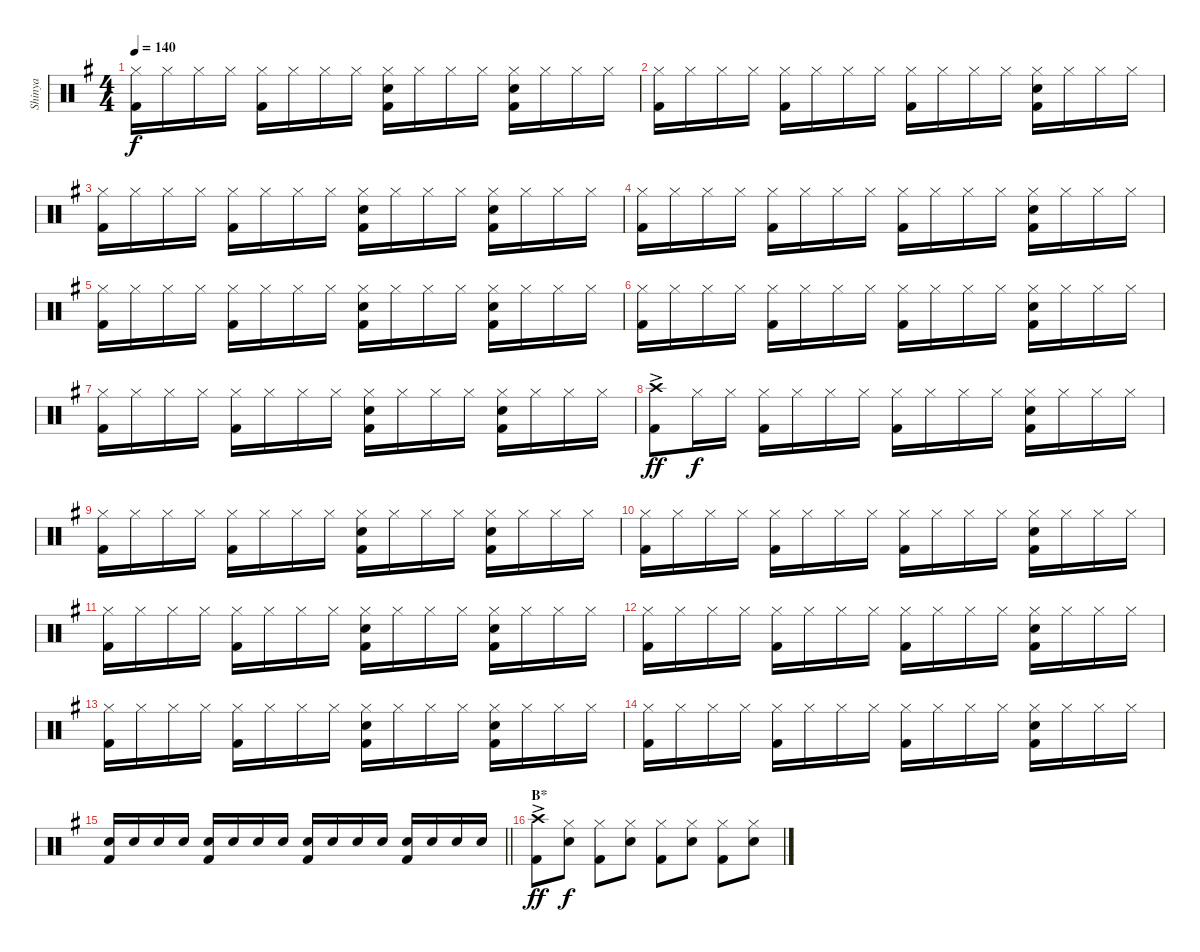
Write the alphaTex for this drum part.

\track ("Shinya" "Shinya") {instrument percussion}
\staff {score}
\articulation defaults
\ts (4 4)
\tempo 140
\clef neutral
\ks g
("Hi-Hat (closed)" "Kick (hit) 2").16{dy f} "Hi-Hat (closed)".16 "Hi-Hat (closed)".16 "Hi-Hat (closed)".16 ("Hi-Hat (closed)" "Kick (hit) 2").16 "Hi-Hat (closed)".16 "Hi-Hat (closed)".16 "Hi-Hat (closed)".16 ("Hi-Hat (closed)" "Snare (hit) 2" "Kick (hit) 2").16 "Hi-Hat (closed)".16 "Hi-Hat (closed)".16 "Hi-Hat (closed)".16 ("Hi-Hat (closed)" "Snare (hit) 2" "Kick (hit) 2").16 "Hi-Hat (closed)".16 "Hi-Hat (closed)".16 "Hi-Hat (closed)".16 |
("Hi-Hat (closed)" "Kick (hit) 2").16 "Hi-Hat (closed)".16 "Hi-Hat (closed)".16 "Hi-Hat (closed)".16 ("Hi-Hat (closed)" "Kick (hit) 2").16 "Hi-Hat (closed)".16 "Hi-Hat (closed)".16 "Hi-Hat (closed)".16 ("Hi-Hat (closed)" "Kick (hit) 2").16 "Hi-Hat (closed)".16 "Hi-Hat (closed)".16 "Hi-Hat (closed)".16 ("Hi-Hat (closed)" "Snare (hit) 2" "Kick (hit) 2").16 "Hi-Hat (closed)".16 "Hi-Hat (closed)".16 "Hi-Hat (closed)".16 |
("Hi-Hat (closed)" "Kick (hit) 2").16 "Hi-Hat (closed)".16 "Hi-Hat (closed)".16 "Hi-Hat (closed)".16 ("Hi-Hat (closed)" "Kick (hit) 2").16 "Hi-Hat (closed)".16 "Hi-Hat (closed)".16 "Hi-Hat (closed)".16 ("Hi-Hat (closed)" "Snare (hit) 2" "Kick (hit) 2").16 "Hi-Hat (closed)".16 "Hi-Hat (closed)".16 "Hi-Hat (closed)".16 ("Hi-Hat (closed)" "Snare (hit) 2" "Kick (hit) 2").16 "Hi-Hat (closed)".16 "Hi-Hat (closed)".16 "Hi-Hat (closed)".16 |
("Hi-Hat (closed)" "Kick (hit) 2").16 "Hi-Hat (closed)".16 "Hi-Hat (closed)".16 "Hi-Hat (closed)".16 ("Hi-Hat (closed)" "Kick (hit) 2").16 "Hi-Hat (closed)".16 "Hi-Hat (closed)".16 "Hi-Hat (closed)".16 ("Hi-Hat (closed)" "Kick (hit) 2").16 "Hi-Hat (closed)".16 "Hi-Hat (closed)".16 "Hi-Hat (closed)".16 ("Hi-Hat (closed)" "Snare (hit) 2" "Kick (hit) 2").16 "Hi-Hat (closed)".16 "Hi-Hat (closed)".16 "Hi-Hat (closed)".16 |
("Hi-Hat (closed)" "Kick (hit) 2").16 "Hi-Hat (closed)".16 "Hi-Hat (closed)".16 "Hi-Hat (closed)".16 ("Hi-Hat (closed)" "Kick (hit) 2").16 "Hi-Hat (closed)".16 "Hi-Hat (closed)".16 "Hi-Hat (closed)".16 ("Hi-Hat (closed)" "Snare (hit) 2" "Kick (hit) 2").16 "Hi-Hat (closed)".16 "Hi-Hat (closed)".16 "Hi-Hat (closed)".16 ("Hi-Hat (closed)" "Snare (hit) 2" "Kick (hit) 2").16 "Hi-Hat (closed)".16 "Hi-Hat (closed)".16 "Hi-Hat (closed)".16 |
("Hi-Hat (closed)" "Kick (hit) 2").16 "Hi-Hat (closed)".16 "Hi-Hat (closed)".16 "Hi-Hat (closed)".16 ("Hi-Hat (closed)" "Kick (hit) 2").16 "Hi-Hat (closed)".16 "Hi-Hat (closed)".16 "Hi-Hat (closed)".16 ("Hi-Hat (closed)" "Kick (hit) 2").16 "Hi-Hat (closed)".16 "Hi-Hat (closed)".16 "Hi-Hat (closed)".16 ("Hi-Hat (closed)" "Snare (hit) 2" "Kick (hit) 2").16 "Hi-Hat (closed)".16 "Hi-Hat (closed)".16 "Hi-Hat (closed)".16 |
("Hi-Hat (closed)" "Kick (hit) 2").16 "Hi-Hat (closed)".16 "Hi-Hat (closed)".16 "Hi-Hat (closed)".16 ("Hi-Hat (closed)" "Kick (hit) 2").16 "Hi-Hat (closed)".16 "Hi-Hat (closed)".16 "Hi-Hat (closed)".16 ("Hi-Hat (closed)" "Snare (hit) 2" "Kick (hit) 2").16 "Hi-Hat (closed)".16 "Hi-Hat (closed)".16 "Hi-Hat (closed)".16 ("Hi-Hat (closed)" "Snare (hit) 2" "Kick (hit) 2").16 "Hi-Hat (closed)".16 "Hi-Hat (closed)".16 "Hi-Hat (closed)".16 |
("Crash high (hit)"{ac} "Kick (hit) 2").8{dy ff} "Hi-Hat (closed)".16{dy f} "Hi-Hat (closed)".16 ("Hi-Hat (closed)" "Kick (hit) 2").16 "Hi-Hat (closed)".16 "Hi-Hat (closed)".16 "Hi-Hat (closed)".16 ("Hi-Hat (closed)" "Kick (hit) 2").16 "Hi-Hat (closed)".16 "Hi-Hat (closed)".16 "Hi-Hat (closed)".16 ("Hi-Hat (closed)" "Snare (hit) 2" "Kick (hit) 2").16 "Hi-Hat (closed)".16 "Hi-Hat (closed)".16 "Hi-Hat (closed)".16 |
("Hi-Hat (closed)" "Kick (hit) 2").16 "Hi-Hat (closed)".16 "Hi-Hat (closed)".16 "Hi-Hat (closed)".16 ("Hi-Hat (closed)" "Kick (hit) 2").16 "Hi-Hat (closed)".16 "Hi-Hat (closed)".16 "Hi-Hat (closed)".16 ("Hi-Hat (closed)" "Snare (hit) 2" "Kick (hit) 2").16 "Hi-Hat (closed)".16 "Hi-Hat (closed)".16 "Hi-Hat (closed)".16 ("Hi-Hat (closed)" "Snare (hit) 2" "Kick (hit) 2").16 "Hi-Hat (closed)".16 "Hi-Hat (closed)".16 "Hi-Hat (closed)".16 |
("Hi-Hat (closed)" "Kick (hit) 2").16 "Hi-Hat (closed)".16 "Hi-Hat (closed)".16 "Hi-Hat (closed)".16 ("Hi-Hat (closed)" "Kick (hit) 2").16 "Hi-Hat (closed)".16 "Hi-Hat (closed)".16 "Hi-Hat (closed)".16 ("Hi-Hat (closed)" "Kick (hit) 2").16 "Hi-Hat (closed)".16 "Hi-Hat (closed)".16 "Hi-Hat (closed)".16 ("Hi-Hat (closed)" "Snare (hit) 2" "Kick (hit) 2").16 "Hi-Hat (closed)".16 "Hi-Hat (closed)".16 "Hi-Hat (closed)".16 |
("Hi-Hat (closed)" "Kick (hit) 2").16 "Hi-Hat (closed)".16 "Hi-Hat (closed)".16 "Hi-Hat (closed)".16 ("Hi-Hat (closed)" "Kick (hit) 2").16 "Hi-Hat (closed)".16 "Hi-Hat (closed)".16 "Hi-Hat (closed)".16 ("Hi-Hat (closed)" "Snare (hit) 2" "Kick (hit) 2").16 "Hi-Hat (closed)".16 "Hi-Hat (closed)".16 "Hi-Hat (closed)".16 ("Hi-Hat (closed)" "Snare (hit) 2" "Kick (hit) 2").16 "Hi-Hat (closed)".16 "Hi-Hat (closed)".16 "Hi-Hat (closed)".16 |
("Hi-Hat (closed)" "Kick (hit) 2").16 "Hi-Hat (closed)".16 "Hi-Hat (closed)".16 "Hi-Hat (closed)".16 ("Hi-Hat (closed)" "Kick (hit) 2").16 "Hi-Hat (closed)".16 "Hi-Hat (closed)".16 "Hi-Hat (closed)".16 ("Hi-Hat (closed)" "Kick (hit) 2").16 "Hi-Hat (closed)".16 "Hi-Hat (closed)".16 "Hi-Hat (closed)".16 ("Hi-Hat (closed)" "Snare (hit) 2" "Kick (hit) 2").16 "Hi-Hat (closed)".16 "Hi-Hat (closed)".16 "Hi-Hat (closed)".16 |
("Hi-Hat (closed)" "Kick (hit) 2").16 "Hi-Hat (closed)".16 "Hi-Hat (closed)".16 "Hi-Hat (closed)".16 ("Hi-Hat (closed)" "Kick (hit) 2").16 "Hi-Hat (closed)".16 "Hi-Hat (closed)".16 "Hi-Hat (closed)".16 ("Hi-Hat (closed)" "Snare (hit) 2" "Kick (hit) 2").16 "Hi-Hat (closed)".16 "Hi-Hat (closed)".16 "Hi-Hat (closed)".16 ("Hi-Hat (closed)" "Snare (hit) 2" "Kick (hit) 2").16 "Hi-Hat (closed)".16 "Hi-Hat (closed)".16 "Hi-Hat (closed)".16 |
("Hi-Hat (closed)" "Kick (hit) 2").16 "Hi-Hat (closed)".16 "Hi-Hat (closed)".16 "Hi-Hat (closed)".16 ("Hi-Hat (closed)" "Kick (hit) 2").16 "Hi-Hat (closed)".16 "Hi-Hat (closed)".16 "Hi-Hat (closed)".16 ("Hi-Hat (closed)" "Kick (hit) 2").16 "Hi-Hat (closed)".16 "Hi-Hat (closed)".16 "Hi-Hat (closed)".16 ("Hi-Hat (closed)" "Snare (hit) 2" "Kick (hit) 2").16 "Hi-Hat (closed)".16 "Hi-Hat (closed)".16 "Hi-Hat (closed)".16 |
\barLineRight lightlight
("Snare (hit) 2" "Kick (hit) 2").16 "Snare (hit) 2".16 "Snare (hit) 2".16 "Snare (hit) 2".16 ("Snare (hit) 2" "Kick (hit) 2").16 "Snare (hit) 2".16 "Snare (hit) 2".16 "Snare (hit) 2".16 ("Snare (hit) 2" "Kick (hit) 2").16 "Snare (hit) 2".16 "Snare (hit) 2".16 "Snare (hit) 2".16 ("Snare (hit) 2" "Kick (hit) 2").16 "Snare (hit) 2".16 "Snare (hit) 2".16 "Snare (hit) 2".16 |
\section ("" "B*")
("Crash high (hit)"{ac} "Kick (hit) 2").8{dy ff} ("Hi-Hat (closed)" "Snare (hit) 2").8{dy f} ("Hi-Hat (closed)" "Kick (hit) 2").8 ("Hi-Hat (closed)" "Snare (hit) 2").8 ("Hi-Hat (closed)" "Kick (hit) 2").8 ("Hi-Hat (closed)" "Snare (hit) 2").8 ("Hi-Hat (closed)" "Kick (hit) 2").8 ("Hi-Hat (closed)" "Snare (hit) 2").8
